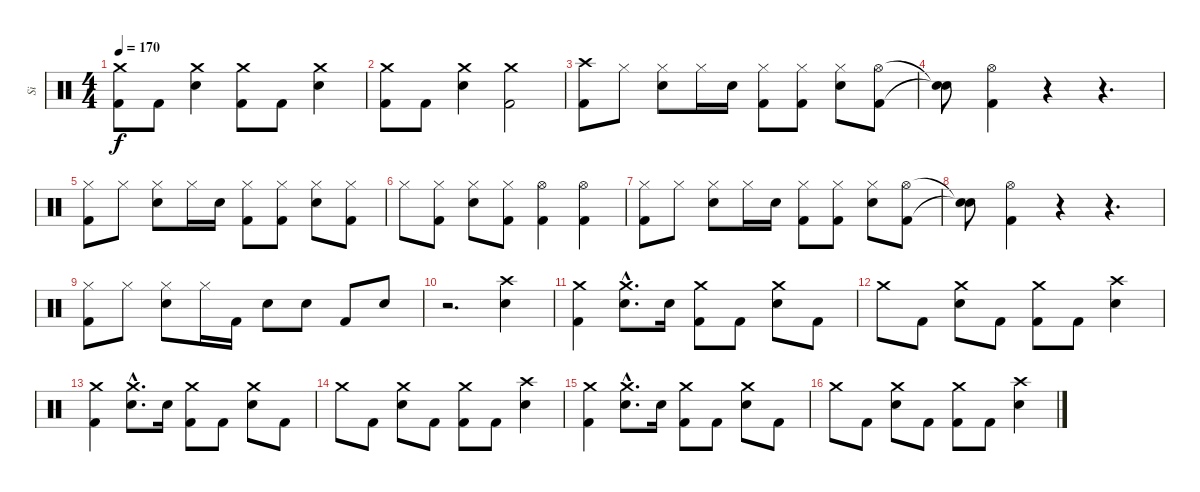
\track ("Si" "Si") {instrument percussion}
\staff {score}
\articulation defaults
\ts (4 4)
\tempo 170
\clef neutral
\ks c
("Crash medium (hit)" "Kick (hit) 2").8{dy f} "Kick (hit) 2".8 ("Crash medium (hit)" "Electric Snare (hit)").4 ("Crash medium (hit)" "Kick (hit) 2").8 "Kick (hit) 2".8 ("Crash medium (hit)" "Electric Snare (hit)").4 |
("Crash medium (hit)" "Kick (hit) 2").8 "Kick (hit) 2".8 ("Crash medium (hit)" "Electric Snare (hit)").4 ("Crash medium (hit)" "Kick (hit) 2").2 |
("Crash high (hit)" "Kick (hit) 2").8 "Hi-Hat (closed)".8 ("Hi-Hat (closed)" "Electric Snare (hit)").8 "Hi-Hat (closed)".16 "Electric Snare (hit)".16 ("Hi-Hat (closed)" "Kick (hit) 2").8 ("Hi-Hat (closed)" "Kick (hit) 2").8 ("Hi-Hat (closed)" "Electric Snare (hit)").8 ("Hi-Hat (open)" "Kick (hit) 2").8 |
("Snare (hit)"{t} "Snare (hit)"{t}).8 ("Hi-Hat (open)" "Kick (hit) 2").4 r.4 r.4{d} |
("Hi-Hat (closed)" "Kick (hit) 2").8 "Hi-Hat (closed)".8 ("Hi-Hat (closed)" "Electric Snare (hit)").8 "Hi-Hat (closed)".16 "Electric Snare (hit)".16 ("Hi-Hat (closed)" "Kick (hit) 2").8 ("Hi-Hat (closed)" "Kick (hit) 2").8 ("Hi-Hat (closed)" "Electric Snare (hit)").8 ("Hi-Hat (closed)" "Kick (hit) 2").8 |
"Hi-Hat (closed)".8 ("Hi-Hat (closed)" "Kick (hit) 2").8 ("Hi-Hat (closed)" "Electric Snare (hit)").8 ("Hi-Hat (closed)" "Kick (hit) 2").8 ("Hi-Hat (open)" "Kick (hit) 2").4 ("Hi-Hat (open)" "Kick (hit) 2").4 |
("Hi-Hat (closed)" "Kick (hit) 2").8 "Hi-Hat (closed)".8 ("Hi-Hat (closed)" "Electric Snare (hit)").8 "Hi-Hat (closed)".16 "Electric Snare (hit)".16 ("Hi-Hat (closed)" "Kick (hit) 2").8 ("Hi-Hat (closed)" "Kick (hit) 2").8 ("Hi-Hat (closed)" "Electric Snare (hit)").8 ("Hi-Hat (open)" "Kick (hit) 2").8 |
("Snare (hit)"{t} "Snare (hit)"{t}).8 ("Hi-Hat (open)" "Kick (hit) 2").4 r.4 r.4{d} |
("Hi-Hat (closed)" "Kick (hit) 2").8 "Hi-Hat (closed)".8 ("Hi-Hat (closed)" "Electric Snare (hit)").8 "Hi-Hat (closed)".16 "Kick (hit) 2".16 "Electric Snare (hit)".8 "Electric Snare (hit)".8 "Kick (hit) 2".8 "Electric Snare (hit)".8 |
r.2{d} ("Crash high (hit)" "Electric Snare (hit)").4 |
("Crash medium (hit)" "Kick (hit) 2").4 ("Crash medium (hit)"{hac} "Electric Snare (hit)"{hac}).8{d} "Electric Snare (hit)".16 ("Crash medium (hit)" "Kick (hit) 2").8 "Kick (hit) 2".8 ("Crash medium (hit)" "Electric Snare (hit)").8 "Kick (hit) 2".8 |
"Crash medium (hit)".8 "Kick (hit) 2".8 ("Crash medium (hit)" "Electric Snare (hit)").8 "Kick (hit) 2".8 ("Crash medium (hit)" "Kick (hit) 2").8 "Kick (hit) 2".8 ("Crash high (hit)" "Electric Snare (hit)").4 |
("Crash medium (hit)" "Kick (hit) 2").4 ("Crash medium (hit)"{hac} "Electric Snare (hit)"{hac}).8{d} "Electric Snare (hit)".16 ("Crash medium (hit)" "Kick (hit) 2").8 "Kick (hit) 2".8 ("Crash medium (hit)" "Electric Snare (hit)").8 "Kick (hit) 2".8 |
"Crash medium (hit)".8 "Kick (hit) 2".8 ("Crash medium (hit)" "Electric Snare (hit)").8 "Kick (hit) 2".8 ("Crash medium (hit)" "Kick (hit) 2").8 "Kick (hit) 2".8 ("Crash high (hit)" "Electric Snare (hit)").4 |
("Crash medium (hit)" "Kick (hit) 2").4 ("Crash medium (hit)"{hac} "Electric Snare (hit)"{hac}).8{d} "Electric Snare (hit)".16 ("Crash medium (hit)" "Kick (hit) 2").8 "Kick (hit) 2".8 ("Crash medium (hit)" "Electric Snare (hit)").8 "Kick (hit) 2".8 |
"Crash medium (hit)".8 "Kick (hit) 2".8 ("Crash medium (hit)" "Electric Snare (hit)").8 "Kick (hit) 2".8 ("Crash medium (hit)" "Kick (hit) 2").8 "Kick (hit) 2".8 ("Crash high (hit)" "Electric Snare (hit)").4
